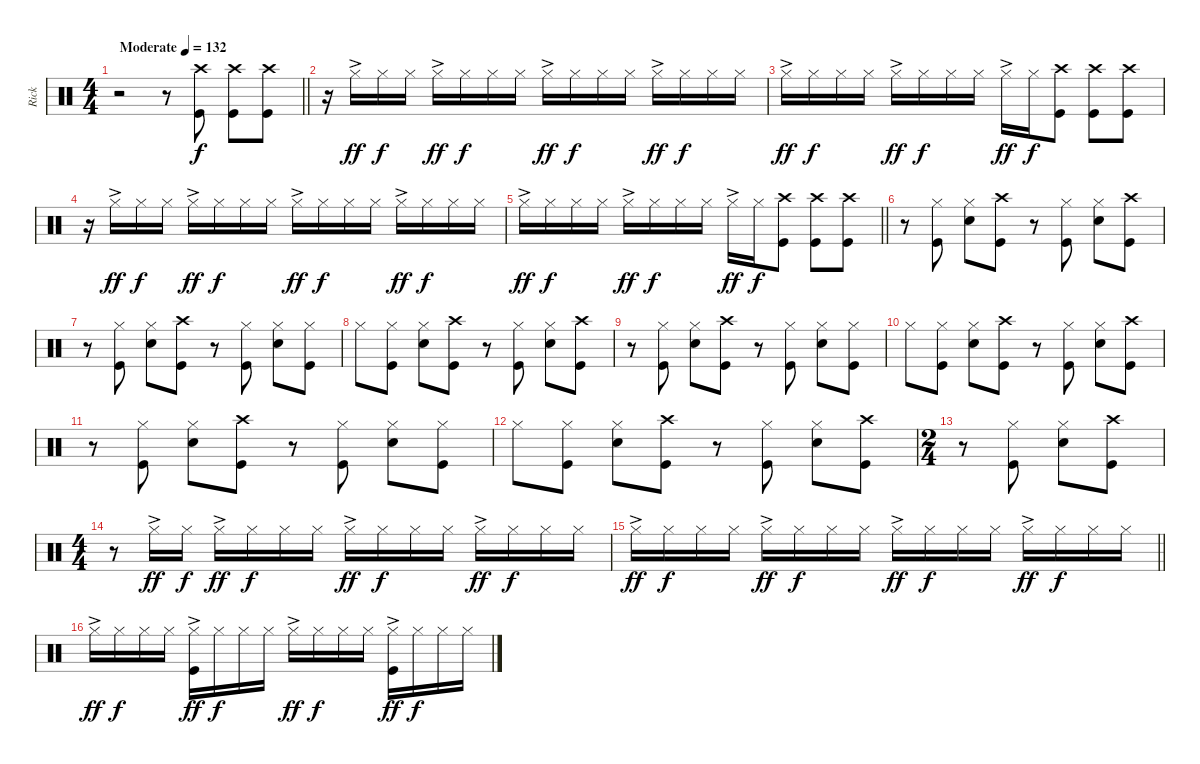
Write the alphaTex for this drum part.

\track ("Rick" "Rick") {instrument percussion}
\staff {score}
\articulation defaults
\ts (4 4)
\tempo (132 "Moderate")
\clef neutral
\barLineRight lightlight
\ks aminor
r.2{dy f} r.8 ("Crash high (hit)" "Kick (hit)").8 ("Crash high (hit)" "Kick (hit)").8 ("Crash high (hit)" "Kick (hit)").8 |
r.16 "Hi-Hat (closed)"{ac}.16{dy ff} "Hi-Hat (closed)".16{dy f} "Hi-Hat (closed)".16 "Hi-Hat (closed)"{ac}.16{dy ff} "Hi-Hat (closed)".16{dy f} "Hi-Hat (closed)".16 "Hi-Hat (closed)".16 "Hi-Hat (closed)"{ac}.16{dy ff} "Hi-Hat (closed)".16{dy f} "Hi-Hat (closed)".16 "Hi-Hat (closed)".16 "Hi-Hat (closed)"{ac}.16{dy ff} "Hi-Hat (closed)".16{dy f} "Hi-Hat (closed)".16 "Hi-Hat (closed)".16 |
"Hi-Hat (closed)"{ac}.16{dy ff} "Hi-Hat (closed)".16{dy f} "Hi-Hat (closed)".16 "Hi-Hat (closed)".16 "Hi-Hat (closed)"{ac}.16{dy ff} "Hi-Hat (closed)".16{dy f} "Hi-Hat (closed)".16 "Hi-Hat (closed)".16 "Hi-Hat (closed)"{ac}.16{dy ff} "Hi-Hat (closed)".16{dy f} ("Crash high (hit)" "Kick (hit)").8 ("Crash high (hit)" "Kick (hit)").8 ("Crash high (hit)" "Kick (hit)").8 |
r.16 "Hi-Hat (closed)"{ac}.16{dy ff} "Hi-Hat (closed)".16{dy f} "Hi-Hat (closed)".16 "Hi-Hat (closed)"{ac}.16{dy ff} "Hi-Hat (closed)".16{dy f} "Hi-Hat (closed)".16 "Hi-Hat (closed)".16 "Hi-Hat (closed)"{ac}.16{dy ff} "Hi-Hat (closed)".16{dy f} "Hi-Hat (closed)".16 "Hi-Hat (closed)".16 "Hi-Hat (closed)"{ac}.16{dy ff} "Hi-Hat (closed)".16{dy f} "Hi-Hat (closed)".16 "Hi-Hat (closed)".16 |
\barLineRight lightlight "Hi-Hat (closed)"{ac}.16{dy ff} "Hi-Hat (closed)".16{dy f} "Hi-Hat (closed)".16 "Hi-Hat (closed)".16 "Hi-Hat (closed)"{ac}.16{dy ff} "Hi-Hat (closed)".16{dy f} "Hi-Hat (closed)".16 "Hi-Hat (closed)".16 "Hi-Hat (closed)"{ac}.16{dy ff} "Hi-Hat (closed)".16{dy f}
("Crash high (hit)" "Kick (hit)").8 ("Crash high (hit)" "Kick (hit)").8 ("Crash high (hit)" "Kick (hit)").8 |
r.8 ("Hi-Hat (closed)" "Kick (hit)").8 ("Hi-Hat (closed)" "Snare (hit) 2").8 ("Crash high (hit)" "Kick (hit)").8 r.8 ("Hi-Hat (closed)" "Kick (hit)").8 ("Hi-Hat (closed)" "Snare (hit) 2").8 ("Crash high (hit)" "Kick (hit)").8 |
r.8 ("Hi-Hat (closed)" "Kick (hit)").8 ("Hi-Hat (closed)" "Snare (hit) 2").8 ("Crash high (hit)" "Kick (hit)").8 r.8 ("Hi-Hat (closed)" "Kick (hit)").8 ("Hi-Hat (closed)" "Snare (hit) 2").8 ("Hi-Hat (closed)" "Kick (hit)").8 |
"Hi-Hat (closed)".8 ("Hi-Hat (closed)" "Kick (hit)").8 ("Hi-Hat (closed)" "Snare (hit) 2").8 ("Crash high (hit)" "Kick (hit)").8 r.8 ("Hi-Hat (closed)" "Kick (hit)").8 ("Hi-Hat (closed)" "Snare (hit) 2").8 ("Crash high (hit)" "Kick (hit)").8 |
r.8 ("Hi-Hat (closed)" "Kick (hit)").8 ("Hi-Hat (closed)" "Snare (hit) 2").8 ("Crash high (hit)" "Kick (hit)").8 r.8 ("Hi-Hat (closed)" "Kick (hit)").8 ("Hi-Hat (closed)" "Snare (hit) 2").8 ("Hi-Hat (closed)" "Kick (hit)").8 |
"Hi-Hat (closed)".8 ("Hi-Hat (closed)" "Kick (hit)").8 ("Hi-Hat (closed)" "Snare (hit) 2").8 ("Crash high (hit)" "Kick (hit)").8 r.8 ("Hi-Hat (closed)" "Kick (hit)").8 ("Hi-Hat (closed)" "Snare (hit) 2").8 ("Crash high (hit)" "Kick (hit)").8 |
r.8 ("Hi-Hat (closed)" "Kick (hit)").8 ("Hi-Hat (closed)" "Snare (hit) 2").8 ("Crash high (hit)" "Kick (hit)").8 r.8 ("Hi-Hat (closed)" "Kick (hit)").8 ("Hi-Hat (closed)" "Snare (hit) 2").8 ("Hi-Hat (closed)" "Kick (hit)").8 |
"Hi-Hat (closed)".8 ("Hi-Hat (closed)" "Kick (hit)").8 ("Hi-Hat (closed)" "Snare (hit) 2").8 ("Crash high (hit)" "Kick (hit)").8 r.8 ("Hi-Hat (closed)" "Kick (hit)").8 ("Hi-Hat (closed)" "Snare (hit) 2").8 ("Crash high (hit)" "Kick (hit)").8 |
\ts (2 4)
r.8 ("Hi-Hat (closed)" "Kick (hit)").8 ("Hi-Hat (closed)" "Snare (hit) 2").8 ("Crash high (hit)" "Kick (hit)").8 |
\ts (4 4)
r.8 "Hi-Hat (closed)"{ac}.16{dy ff} "Hi-Hat (closed)".16{dy f} "Hi-Hat (closed)"{ac}.16{dy ff} "Hi-Hat (closed)".16{dy f} "Hi-Hat (closed)".16 "Hi-Hat (closed)".16 "Hi-Hat (closed)"{ac}.16{dy ff} "Hi-Hat (closed)".16{dy f} "Hi-Hat (closed)".16 "Hi-Hat (closed)".16 "Hi-Hat (closed)"{ac}.16{dy ff} "Hi-Hat (closed)".16{dy f} "Hi-Hat (closed)".16 "Hi-Hat (closed)".16 |
\barLineRight lightlight "Hi-Hat (closed)"{ac}.16{dy ff} "Hi-Hat (closed)".16{dy f} "Hi-Hat (closed)".16 "Hi-Hat (closed)".16 "Hi-Hat (closed)"{ac}.16{dy ff} "Hi-Hat (closed)".16{dy f} "Hi-Hat (closed)".16 "Hi-Hat (closed)".16 "Hi-Hat (closed)"{ac}.16{dy ff} "Hi-Hat (closed)".16{dy f} "Hi-Hat (closed)".16 "Hi-Hat (closed)".16 "Hi-Hat (closed)"{ac}.16{dy ff} "Hi-Hat (closed)".16{dy f} "Hi-Hat (closed)".16 "Hi-Hat (closed)".16
|
"Hi-Hat (closed)"{ac}.16{dy ff} "Hi-Hat (closed)".16{dy f} "Hi-Hat (closed)".16 "Hi-Hat (closed)".16 ("Hi-Hat (closed)"{ac} "Kick (hit)").16{dy ff} "Hi-Hat (closed)".16{dy f} "Hi-Hat (closed)".16 "Hi-Hat (closed)".16 "Hi-Hat (closed)"{ac}.16{dy ff} "Hi-Hat (closed)".16{dy f} "Hi-Hat (closed)".16 "Hi-Hat (closed)".16 ("Hi-Hat (closed)"{ac} "Kick (hit)").16{dy ff} "Hi-Hat (closed)".16{dy f} "Hi-Hat (closed)".16 "Hi-Hat (closed)".16
